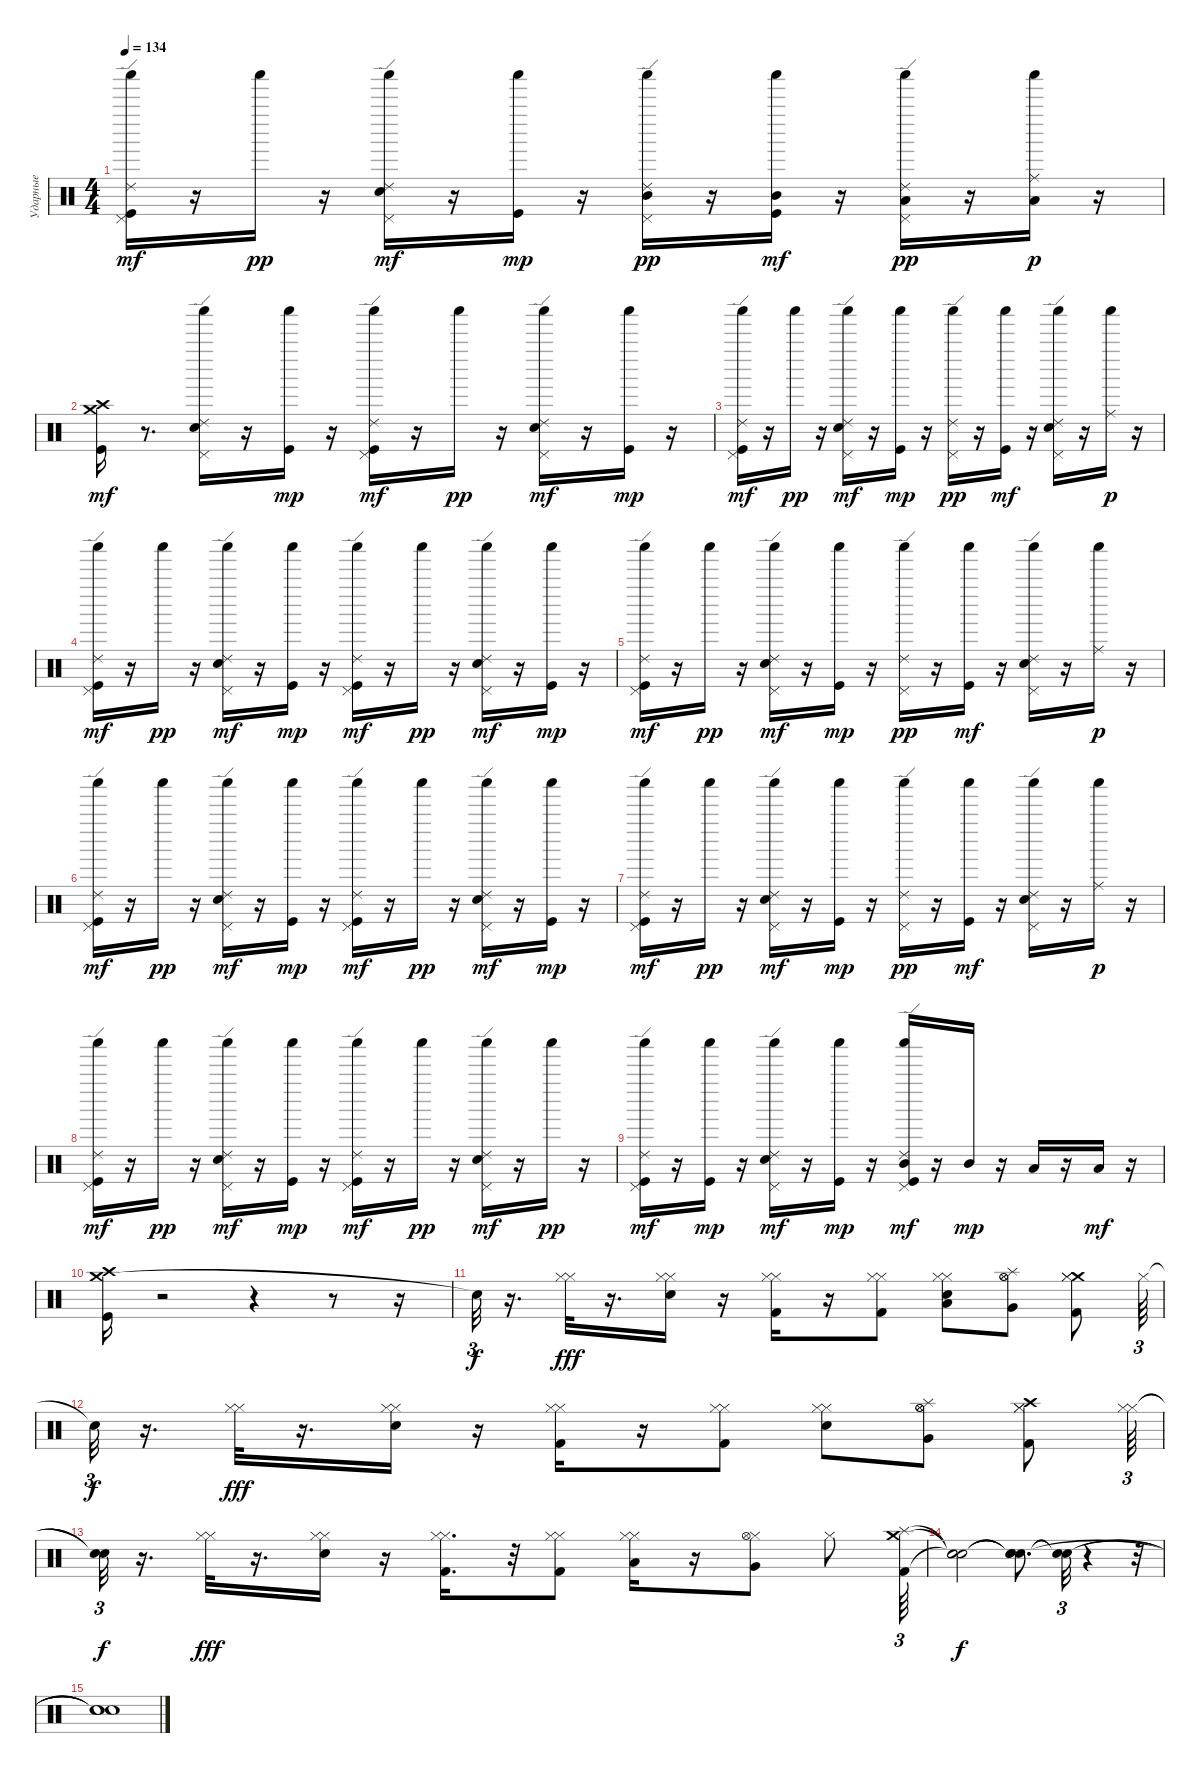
\track ("Ударные" "Ударные") {instrument percussion}
\staff {score}
\articulation defaults
\ts (4 4)
\tempo 134
\clef neutral
\ks c
("Pedal Hi-Hat (hit)" "Ride (edge) 2" "Shaker (hit)" "Kick (hit)").16{dy mf} r.16 "Shaker (hit)".16{dy pp} r.16 ("Pedal Hi-Hat (hit)" "Ride (edge) 2" "Shaker (hit)" "Snare (hit) 2").16{dy mf} r.16 ("Shaker (hit)" "Kick (hit)").16{dy mp} r.16 ("Pedal Hi-Hat (hit)" "Mid Tom (hit)" "Ride (edge) 2" "Shaker (hit)").16{dy pp} r.16 ("Mid Tom (hit)" "Shaker (hit)" "Kick (hit)").16{dy mf} r.16 ("Pedal Hi-Hat (hit)" "Low Tom (hit)" "Ride (edge) 2" "Shaker (hit)").16{dy pp} r.16 ("Low Floor Tom (hit)" "Shaker (hit)" "Ride (middle)").16{dy p} r.16 |
("Crash medium (hit)" "Crash high (hit)" "Kick (hit)").16{dy mf} r.8{d} ("Pedal Hi-Hat (hit)" "Ride (edge) 2" "Shaker (hit)" "Snare (hit) 2").16 r.16 ("Shaker (hit)" "Kick (hit)").16{dy mp} r.16 ("Pedal Hi-Hat (hit)" "Ride (edge) 2" "Shaker (hit)" "Kick (hit)").16{dy mf} r.16 "Shaker (hit)".16{dy pp} r.16 ("Pedal Hi-Hat (hit)" "Ride (edge) 2" "Shaker (hit)" "Snare (hit) 2").16{dy mf} r.16 ("Shaker (hit)" "Kick (hit)").16{dy mp} r.16 |
("Pedal Hi-Hat (hit)" "Ride (edge) 2" "Shaker (hit)" "Kick (hit)").16{dy mf} r.16 "Shaker (hit)".16{dy pp} r.16 ("Pedal Hi-Hat (hit)" "Ride (edge) 2" "Shaker (hit)" "Snare (hit) 2").16{dy mf} r.16 ("Shaker (hit)" "Kick (hit)").16{dy mp} r.16 ("Pedal Hi-Hat (hit)" "Ride (edge) 2" "Shaker (hit)").16{dy pp} r.16 ("Shaker (hit)" "Kick (hit)").16{dy mf} r.16 ("Pedal Hi-Hat (hit)" "Ride (edge) 2" "Shaker (hit)" "Snare (hit) 2").16 r.16 ("Shaker (hit)" "Ride (middle)").16{dy p} r.16 |
("Pedal Hi-Hat (hit)" "Ride (edge) 2" "Shaker (hit)" "Kick (hit)").16{dy mf} r.16 "Shaker (hit)".16{dy pp} r.16 ("Pedal Hi-Hat (hit)" "Ride (edge) 2" "Shaker (hit)" "Snare (hit) 2").16{dy mf} r.16 ("Shaker (hit)" "Kick (hit)").16{dy mp} r.16 ("Pedal Hi-Hat (hit)" "Ride (edge) 2" "Shaker (hit)" "Kick (hit)").16{dy mf} r.16 "Shaker (hit)".16{dy pp} r.16 ("Pedal Hi-Hat (hit)" "Ride (edge) 2" "Shaker (hit)" "Snare (hit) 2").16{dy mf} r.16 ("Shaker (hit)" "Kick (hit)").16{dy mp} r.16 |
("Pedal Hi-Hat (hit)" "Ride (edge) 2" "Shaker (hit)" "Kick (hit)").16{dy mf} r.16 "Shaker (hit)".16{dy pp} r.16 ("Pedal Hi-Hat (hit)" "Ride (edge) 2" "Shaker (hit)" "Snare (hit) 2").16{dy mf} r.16 ("Shaker (hit)" "Kick (hit)").16{dy mp} r.16 ("Pedal Hi-Hat (hit)" "Ride (edge) 2" "Shaker (hit)").16{dy pp} r.16 ("Shaker (hit)" "Kick (hit)").16{dy mf} r.16 ("Pedal Hi-Hat (hit)" "Ride (edge) 2" "Shaker (hit)" "Snare (hit) 2").16 r.16 ("Shaker (hit)" "Ride (middle)").16{dy p} r.16 |
("Pedal Hi-Hat (hit)" "Ride (edge) 2" "Shaker (hit)" "Kick (hit)").16{dy mf} r.16 "Shaker (hit)".16{dy pp} r.16 ("Pedal Hi-Hat (hit)" "Ride (edge) 2" "Shaker (hit)" "Snare (hit) 2").16{dy mf} r.16 ("Shaker (hit)" "Kick (hit)").16{dy mp} r.16 ("Pedal Hi-Hat (hit)" "Ride (edge) 2" "Shaker (hit)" "Kick (hit)").16{dy mf} r.16 "Shaker (hit)".16{dy pp} r.16 ("Pedal Hi-Hat (hit)" "Ride (edge) 2" "Shaker (hit)" "Snare (hit) 2").16{dy mf} r.16 ("Shaker (hit)" "Kick (hit)").16{dy mp} r.16 |
("Pedal Hi-Hat (hit)" "Ride (edge) 2" "Shaker (hit)" "Kick (hit)").16{dy mf} r.16 "Shaker (hit)".16{dy pp} r.16 ("Pedal Hi-Hat (hit)" "Ride (edge) 2" "Shaker (hit)" "Snare (hit) 2").16{dy mf} r.16 ("Shaker (hit)" "Kick (hit)").16{dy mp} r.16 ("Pedal Hi-Hat (hit)" "Ride (edge) 2" "Shaker (hit)").16{dy pp} r.16 ("Shaker (hit)" "Kick (hit)").16{dy mf} r.16 ("Pedal Hi-Hat (hit)" "Ride (edge) 2" "Shaker (hit)" "Snare (hit) 2").16 r.16 ("Shaker (hit)" "Ride (middle)").16{dy p} r.16 |
("Shaker (hit)" "Ride (edge) 2" "Pedal Hi-Hat (hit)" "Kick (hit)").16{dy mf} r.16 "Shaker (hit)".16{dy pp} r.16 ("Shaker (hit)" "Ride (edge) 2" "Pedal Hi-Hat (hit)" "Snare (hit) 2").16{dy mf} r.16 ("Shaker (hit)" "Kick (hit)").16{dy mp} r.16 ("Shaker (hit)" "Ride (edge) 2" "Pedal Hi-Hat (hit)" "Kick (hit)").16{dy mf} r.16 "Shaker (hit)".16{dy pp} r.16 ("Shaker (hit)" "Ride (edge) 2" "Pedal Hi-Hat (hit)" "Snare (hit) 2").16{dy mf} r.16 "Shaker (hit)".16{dy pp} r.16 |
("Shaker (hit)" "Ride (edge) 2" "Pedal Hi-Hat (hit)" "Kick (hit)").16{dy mf} r.16 ("Shaker (hit)" "Kick (hit)").16{dy mp} r.16 ("Shaker (hit)" "Ride (edge) 2" "Pedal Hi-Hat (hit)" "Snare (hit) 2").16{dy mf} r.16 ("Shaker (hit)" "Kick (hit)").16{dy mp} r.16 ("Shaker (hit)" "Ride (edge) 2" "Mid Tom (hit)" "Pedal Hi-Hat (hit)" "Kick (hit)").16{dy mf} r.16 "Mid Tom (hit)".16{dy mp} r.16 "Low Tom (hit)".16 r.16 "Low Floor Tom (hit)".16{dy mf} r.16 |
("Crash medium (hit)" "Crash high (hit)" "Kick (hit)").16 r.2 r.4 r.8 r.16 |
"Snare (hit)"{t}.32{tu (3 2) dy f} r.16{d} ("Hi-Hat (closed)" "Hi-Hat (closed)").32{dy fff} r.16{d} ("Electric Snare (hit)" "Hi-Hat (closed)" "Hi-Hat (closed)").16 r.16 ("Kick (hit) 2" "Hi-Hat (closed)" "Hi-Hat (closed)").16 r.16 ("Kick (hit) 2" "Hi-Hat (closed)" "Hi-Hat (closed)").8 ("Electric Snare (hit)" "Low Tom (hit)" "Hi-Hat (closed)" "Hi-Hat (closed)").8 ("Very Low Tom (hit)" "Splash (hit)" "Hi-Hat (open)" "Hi-Hat (open)").8 ("Crash medium (hit)" "Kick (hit) 2" "Hi-Hat (closed)" "Hi-Hat (closed)").8 "Hi-Hat (closed)".64{tu (3 2)} |
"Snare (hit)"{t}.32{tu (3 2) dy f} r.16{d} ("Hi-Hat (closed)" "Hi-Hat (closed)").32{dy fff} r.16{d} ("Electric Snare (hit)" "Hi-Hat (closed)" "Hi-Hat (closed)").16 r.16 ("Kick (hit) 2" "Hi-Hat (closed)" "Hi-Hat (closed)").16 r.16 ("Kick (hit) 2" "Hi-Hat (closed)" "Hi-Hat (closed)").8 ("Electric Snare (hit)" "Hi-Hat (closed)" "Hi-Hat (closed)").8 ("Splash (hit)" "Very Low Tom (hit)" "Hi-Hat (open)" "Hi-Hat (open)").8 ("Crash high (hit)" "Kick (hit) 2" "Hi-Hat (closed)" "Hi-Hat (closed)").8 ("Hi-Hat (closed)" "Hi-Hat (closed)").64{tu (3 2)} |
("Snare (hit)"{t} "Snare (hit)"{t}).32{tu (3 2) dy f} r.16{d} ("Hi-Hat (closed)" "Hi-Hat (closed)").32{dy fff} r.16{d} ("Electric Snare (hit)" "Hi-Hat (closed)" "Hi-Hat (closed)").16 r.16 ("Kick (hit) 2" "Hi-Hat (closed)" "Hi-Hat (closed)").16{d} r.32 ("Kick (hit) 2" "Hi-Hat (closed)" "Hi-Hat (closed)").8 ("Low Tom (hit)" "Hi-Hat (closed)" "Hi-Hat (closed)").16 r.16 ("Very Low Tom (hit)" "Hi-Hat (closed)" "Hi-Hat (open)").8 "Hi-Hat (closed)".8 ("Crash medium (hit)" "Splash (hit)" "Kick (hit) 2").64{tu (3 2)} |
("Snare (hit)"{t} "Snare (hit)"{t} "Snare (hit)"{t}).2{dy f} ("Snare (hit)"{t} "Snare (hit)"{t} "Snare (hit)"{t}).8{d} ("Snare (hit)"{t} "Snare (hit)"{t}).32{tu (3 2)} r.4 r.32 |
("Snare (hit)"{t} "Snare (hit)"{t} "Snare (hit)"{t}).1
